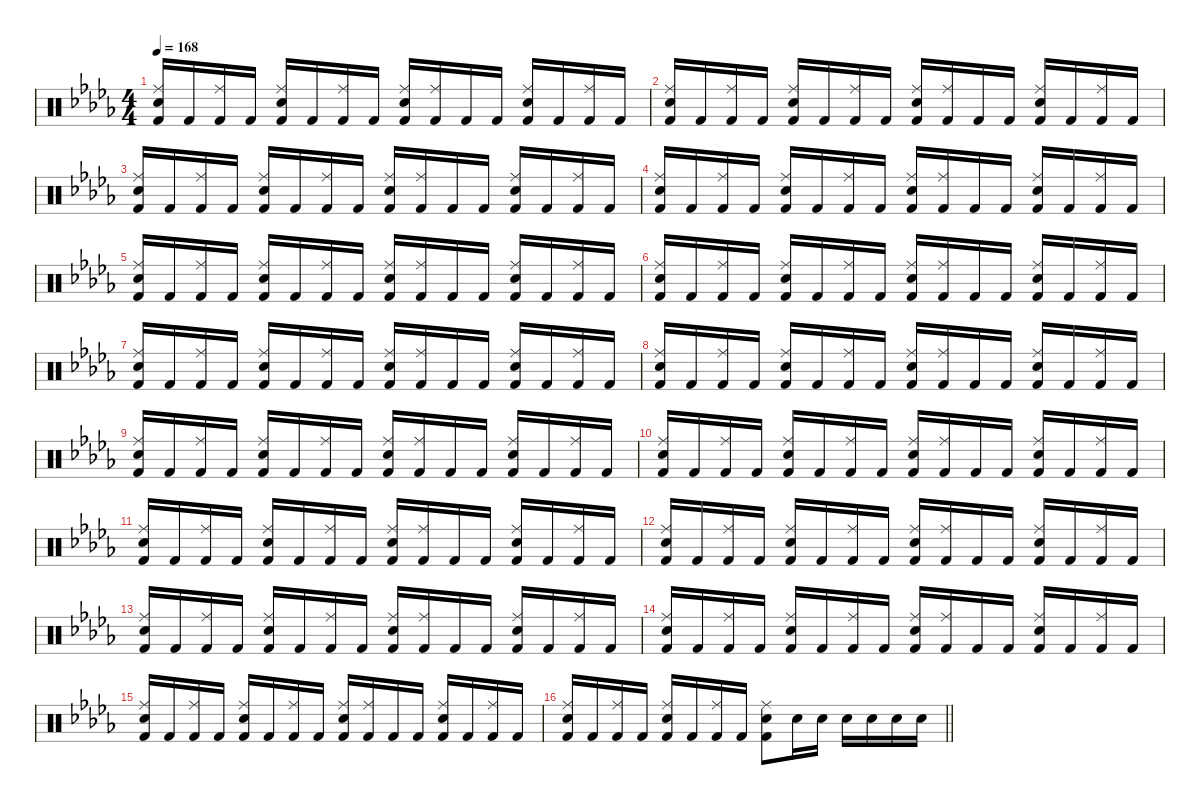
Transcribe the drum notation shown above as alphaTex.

\defaultSystemsLayout 4
\hideDynamics
\bracketExtendMode nobrackets
\singleTrackTrackNamePolicy hidden
\multiTrackTrackNamePolicy hidden
\firstSystemTrackNameMode fullname
\firstSystemTrackNameOrientation horizontal
\otherSystemsTrackNameOrientation horizontal
\track ("Percussion" "drm.") {instrument percussion}
\staff {score}
\articulation defaults
\ts (4 4)
\tempo 168
\clef neutral
\ks db
("Ride (middle)"{acc forcenatural} "Snare (hit) 2"{acc forcenatural} "Kick (hit) 2"{acc forcenatural}).16{dy f beam Up} "Kick (hit) 2"{acc forcenatural}.16{beam Up} ("Ride (middle)"{acc forcenatural} "Kick (hit) 2"{acc forcenatural}).16{beam Up} "Kick (hit) 2"{acc forcenatural}.16{beam Up} ("Ride (middle)"{acc forcenatural} "Snare (hit) 2"{acc forcenatural} "Kick (hit) 2"{acc forcenatural}).16{beam Up} "Kick (hit) 2"{acc forcenatural}.16{beam Up} ("Ride (middle)"{acc forcenatural} "Kick (hit) 2"{acc forcenatural}).16{beam Up} "Kick (hit) 2"{acc forcenatural}.16{beam Up} ("Ride (middle)"{acc forcenatural} "Snare (hit) 2"{acc forcenatural} "Kick (hit) 2"{acc forcenatural}).16{beam Up} ("Ride (middle)"{acc forcenatural} "Kick (hit) 2"{acc forcenatural}).16{beam Up} "Kick (hit) 2"{acc forcenatural}.16{beam Up} "Kick (hit) 2"{acc forcenatural}.16{beam Up} ("Ride (middle)"{acc forcenatural} "Snare (hit) 2"{acc forcenatural} "Kick (hit) 2"{acc forcenatural}).16{beam Up} "Kick (hit) 2"{acc forcenatural}.16{beam Up} ("Ride (middle)"{acc forcenatural} "Kick (hit) 2"{acc forcenatural}).16{beam Up} "Kick (hit) 2"{acc forcenatural}.16{beam Up} |
("Ride (middle)"{acc forcenatural} "Snare (hit) 2"{acc forcenatural} "Kick (hit) 2"{acc forcenatural}).16{beam Up} "Kick (hit) 2"{acc forcenatural}.16{beam Up} ("Ride (middle)"{acc forcenatural} "Kick (hit) 2"{acc forcenatural}).16{beam Up} "Kick (hit) 2"{acc forcenatural}.16{beam Up} ("Ride (middle)"{acc forcenatural} "Snare (hit) 2"{acc forcenatural} "Kick (hit) 2"{acc forcenatural}).16{beam Up} "Kick (hit) 2"{acc forcenatural}.16{beam Up} ("Ride (middle)"{acc forcenatural} "Kick (hit) 2"{acc forcenatural}).16{beam Up} "Kick (hit) 2"{acc forcenatural}.16{beam Up} ("Ride (middle)"{acc forcenatural} "Snare (hit) 2"{acc forcenatural} "Kick (hit) 2"{acc forcenatural}).16{beam Up} ("Ride (middle)"{acc forcenatural} "Kick (hit) 2"{acc forcenatural}).16{beam Up} "Kick (hit) 2"{acc forcenatural}.16{beam Up} "Kick (hit) 2"{acc forcenatural}.16{beam Up} ("Ride (middle)"{acc forcenatural} "Snare (hit) 2"{acc forcenatural} "Kick (hit) 2"{acc forcenatural}).16{beam Up} "Kick (hit) 2"{acc forcenatural}.16{beam Up} ("Ride (middle)"{acc forcenatural} "Kick (hit) 2"{acc forcenatural}).16{beam Up} "Kick (hit) 2"{acc forcenatural}.16{beam Up} |
("Ride (middle)"{acc forcenatural} "Snare (hit) 2"{acc forcenatural} "Kick (hit) 2"{acc forcenatural}).16{beam Up} "Kick (hit) 2"{acc forcenatural}.16{beam Up} ("Ride (middle)"{acc forcenatural} "Kick (hit) 2"{acc forcenatural}).16{beam Up} "Kick (hit) 2"{acc forcenatural}.16{beam Up} ("Ride (middle)"{acc forcenatural} "Snare (hit) 2"{acc forcenatural} "Kick (hit) 2"{acc forcenatural}).16{beam Up} "Kick (hit) 2"{acc forcenatural}.16{beam Up} ("Ride (middle)"{acc forcenatural} "Kick (hit) 2"{acc forcenatural}).16{beam Up} "Kick (hit) 2"{acc forcenatural}.16{beam Up} ("Ride (middle)"{acc forcenatural} "Snare (hit) 2"{acc forcenatural} "Kick (hit) 2"{acc forcenatural}).16{beam Up} ("Ride (middle)"{acc forcenatural} "Kick (hit) 2"{acc forcenatural}).16{beam Up} "Kick (hit) 2"{acc forcenatural}.16{beam Up} "Kick (hit) 2"{acc forcenatural}.16{beam Up} ("Ride (middle)"{acc forcenatural} "Snare (hit) 2"{acc forcenatural} "Kick (hit) 2"{acc forcenatural}).16{beam Up} "Kick (hit) 2"{acc forcenatural}.16{beam Up} ("Ride (middle)"{acc forcenatural} "Kick (hit) 2"{acc forcenatural}).16{beam Up} "Kick (hit) 2"{acc forcenatural}.16{beam Up} |
("Ride (middle)"{acc forcenatural} "Snare (hit) 2"{acc forcenatural} "Kick (hit) 2"{acc forcenatural}).16{beam Up} "Kick (hit) 2"{acc forcenatural}.16{beam Up} ("Ride (middle)"{acc forcenatural} "Kick (hit) 2"{acc forcenatural}).16{beam Up} "Kick (hit) 2"{acc forcenatural}.16{beam Up} ("Ride (middle)"{acc forcenatural} "Snare (hit) 2"{acc forcenatural} "Kick (hit) 2"{acc forcenatural}).16{beam Up} "Kick (hit) 2"{acc forcenatural}.16{beam Up} ("Ride (middle)"{acc forcenatural} "Kick (hit) 2"{acc forcenatural}).16{beam Up} "Kick (hit) 2"{acc forcenatural}.16{beam Up} ("Ride (middle)"{acc forcenatural} "Snare (hit) 2"{acc forcenatural} "Kick (hit) 2"{acc forcenatural}).16{beam Up} ("Ride (middle)"{acc forcenatural} "Kick (hit) 2"{acc forcenatural}).16{beam Up} "Kick (hit) 2"{acc forcenatural}.16{beam Up} "Kick (hit) 2"{acc forcenatural}.16{beam Up} ("Ride (middle)"{acc forcenatural} "Snare (hit) 2"{acc forcenatural} "Kick (hit) 2"{acc forcenatural}).16{beam Up} "Kick (hit) 2"{acc forcenatural}.16{beam Up} ("Ride (middle)"{acc forcenatural} "Kick (hit) 2"{acc forcenatural}).16{beam Up} "Kick (hit) 2"{acc forcenatural}.16{beam Up} |
("Ride (middle)"{acc forcenatural} "Snare (hit) 2"{acc forcenatural} "Kick (hit) 2"{acc forcenatural}).16{beam Up} "Kick (hit) 2"{acc forcenatural}.16{beam Up} ("Ride (middle)"{acc forcenatural} "Kick (hit) 2"{acc forcenatural}).16{beam Up} "Kick (hit) 2"{acc forcenatural}.16{beam Up} ("Ride (middle)"{acc forcenatural} "Snare (hit) 2"{acc forcenatural} "Kick (hit) 2"{acc forcenatural}).16{beam Up} "Kick (hit) 2"{acc forcenatural}.16{beam Up} ("Ride (middle)"{acc forcenatural} "Kick (hit) 2"{acc forcenatural}).16{beam Up} "Kick (hit) 2"{acc forcenatural}.16{beam Up} ("Ride (middle)"{acc forcenatural} "Snare (hit) 2"{acc forcenatural} "Kick (hit) 2"{acc forcenatural}).16{beam Up} ("Ride (middle)"{acc forcenatural} "Kick (hit) 2"{acc forcenatural}).16{beam Up} "Kick (hit) 2"{acc forcenatural}.16{beam Up} "Kick (hit) 2"{acc forcenatural}.16{beam Up} ("Ride (middle)"{acc forcenatural} "Snare (hit) 2"{acc forcenatural} "Kick (hit) 2"{acc forcenatural}).16{beam Up} "Kick (hit) 2"{acc forcenatural}.16{beam Up} ("Ride (middle)"{acc forcenatural} "Kick (hit) 2"{acc forcenatural}).16{beam Up} "Kick (hit) 2"{acc forcenatural}.16{beam Up} |
("Ride (middle)"{acc forcenatural} "Snare (hit) 2"{acc forcenatural} "Kick (hit) 2"{acc forcenatural}).16{beam Up} "Kick (hit) 2"{acc forcenatural}.16{beam Up} ("Ride (middle)"{acc forcenatural} "Kick (hit) 2"{acc forcenatural}).16{beam Up} "Kick (hit) 2"{acc forcenatural}.16{beam Up} ("Ride (middle)"{acc forcenatural} "Snare (hit) 2"{acc forcenatural} "Kick (hit) 2"{acc forcenatural}).16{beam Up} "Kick (hit) 2"{acc forcenatural}.16{beam Up} ("Ride (middle)"{acc forcenatural} "Kick (hit) 2"{acc forcenatural}).16{beam Up} "Kick (hit) 2"{acc forcenatural}.16{beam Up} ("Ride (middle)"{acc forcenatural} "Snare (hit) 2"{acc forcenatural} "Kick (hit) 2"{acc forcenatural}).16{beam Up} ("Ride (middle)"{acc forcenatural} "Kick (hit) 2"{acc forcenatural}).16{beam Up} "Kick (hit) 2"{acc forcenatural}.16{beam Up} "Kick (hit) 2"{acc forcenatural}.16{beam Up} ("Ride (middle)"{acc forcenatural} "Snare (hit) 2"{acc forcenatural} "Kick (hit) 2"{acc forcenatural}).16{beam Up} "Kick (hit) 2"{acc forcenatural}.16{beam Up} ("Ride (middle)"{acc forcenatural} "Kick (hit) 2"{acc forcenatural}).16{beam Up} "Kick (hit) 2"{acc forcenatural}.16{beam Up} |
("Ride (middle)"{acc forcenatural} "Snare (hit) 2"{acc forcenatural} "Kick (hit) 2"{acc forcenatural}).16{beam Up} "Kick (hit) 2"{acc forcenatural}.16{beam Up} ("Ride (middle)"{acc forcenatural} "Kick (hit) 2"{acc forcenatural}).16{beam Up} "Kick (hit) 2"{acc forcenatural}.16{beam Up} ("Ride (middle)"{acc forcenatural} "Snare (hit) 2"{acc forcenatural} "Kick (hit) 2"{acc forcenatural}).16{beam Up} "Kick (hit) 2"{acc forcenatural}.16{beam Up} ("Ride (middle)"{acc forcenatural} "Kick (hit) 2"{acc forcenatural}).16{beam Up} "Kick (hit) 2"{acc forcenatural}.16{beam Up} ("Ride (middle)"{acc forcenatural} "Snare (hit) 2"{acc forcenatural} "Kick (hit) 2"{acc forcenatural}).16{beam Up} ("Ride (middle)"{acc forcenatural} "Kick (hit) 2"{acc forcenatural}).16{beam Up} "Kick (hit) 2"{acc forcenatural}.16{beam Up} "Kick (hit) 2"{acc forcenatural}.16{beam Up} ("Ride (middle)"{acc forcenatural} "Snare (hit) 2"{acc forcenatural} "Kick (hit) 2"{acc forcenatural}).16{beam Up} "Kick (hit) 2"{acc forcenatural}.16{beam Up} ("Ride (middle)"{acc forcenatural} "Kick (hit) 2"{acc forcenatural}).16{beam Up} "Kick (hit) 2"{acc forcenatural}.16{beam Up} |
("Ride (middle)"{acc forcenatural} "Snare (hit) 2"{acc forcenatural} "Kick (hit) 2"{acc forcenatural}).16{beam Up} "Kick (hit) 2"{acc forcenatural}.16{beam Up} ("Ride (middle)"{acc forcenatural} "Kick (hit) 2"{acc forcenatural}).16{beam Up} "Kick (hit) 2"{acc forcenatural}.16{beam Up} ("Ride (middle)"{acc forcenatural} "Snare (hit) 2"{acc forcenatural} "Kick (hit) 2"{acc forcenatural}).16{beam Up} "Kick (hit) 2"{acc forcenatural}.16{beam Up} ("Ride (middle)"{acc forcenatural} "Kick (hit) 2"{acc forcenatural}).16{beam Up} "Kick (hit) 2"{acc forcenatural}.16{beam Up} ("Ride (middle)"{acc forcenatural} "Snare (hit) 2"{acc forcenatural} "Kick (hit) 2"{acc forcenatural}).16{beam Up} ("Ride (middle)"{acc forcenatural} "Kick (hit) 2"{acc forcenatural}).16{beam Up} "Kick (hit) 2"{acc forcenatural}.16{beam Up} "Kick (hit) 2"{acc forcenatural}.16{beam Up} ("Ride (middle)"{acc forcenatural} "Snare (hit) 2"{acc forcenatural} "Kick (hit) 2"{acc forcenatural}).16{beam Up} "Kick (hit) 2"{acc forcenatural}.16{beam Up} ("Ride (middle)"{acc forcenatural} "Kick (hit) 2"{acc forcenatural}).16{beam Up} "Kick (hit) 2"{acc forcenatural}.16{beam Up} |
("Ride (middle)"{acc forcenatural} "Snare (hit) 2"{acc forcenatural} "Kick (hit) 2"{acc forcenatural}).16{beam Up} "Kick (hit) 2"{acc forcenatural}.16{beam Up} ("Ride (middle)"{acc forcenatural} "Kick (hit) 2"{acc forcenatural}).16{beam Up} "Kick (hit) 2"{acc forcenatural}.16{beam Up} ("Ride (middle)"{acc forcenatural} "Snare (hit) 2"{acc forcenatural} "Kick (hit) 2"{acc forcenatural}).16{beam Up} "Kick (hit) 2"{acc forcenatural}.16{beam Up} ("Ride (middle)"{acc forcenatural} "Kick (hit) 2"{acc forcenatural}).16{beam Up} "Kick (hit) 2"{acc forcenatural}.16{beam Up} ("Ride (middle)"{acc forcenatural} "Snare (hit) 2"{acc forcenatural} "Kick (hit) 2"{acc forcenatural}).16{beam Up} ("Ride (middle)"{acc forcenatural} "Kick (hit) 2"{acc forcenatural}).16{beam Up} "Kick (hit) 2"{acc forcenatural}.16{beam Up} "Kick (hit) 2"{acc forcenatural}.16{beam Up} ("Ride (middle)"{acc forcenatural} "Snare (hit) 2"{acc forcenatural} "Kick (hit) 2"{acc forcenatural}).16{beam Up} "Kick (hit) 2"{acc forcenatural}.16{beam Up} ("Ride (middle)"{acc forcenatural} "Kick (hit) 2"{acc forcenatural}).16{beam Up} "Kick (hit) 2"{acc forcenatural}.16{beam Up} |
("Ride (middle)"{acc forcenatural} "Snare (hit) 2"{acc forcenatural} "Kick (hit) 2"{acc forcenatural}).16{beam Up} "Kick (hit) 2"{acc forcenatural}.16{beam Up} ("Ride (middle)"{acc forcenatural} "Kick (hit) 2"{acc forcenatural}).16{beam Up} "Kick (hit) 2"{acc forcenatural}.16{beam Up} ("Ride (middle)"{acc forcenatural} "Snare (hit) 2"{acc forcenatural} "Kick (hit) 2"{acc forcenatural}).16{beam Up} "Kick (hit) 2"{acc forcenatural}.16{beam Up} ("Ride (middle)"{acc forcenatural} "Kick (hit) 2"{acc forcenatural}).16{beam Up} "Kick (hit) 2"{acc forcenatural}.16{beam Up} ("Ride (middle)"{acc forcenatural} "Snare (hit) 2"{acc forcenatural} "Kick (hit) 2"{acc forcenatural}).16{beam Up} ("Ride (middle)"{acc forcenatural} "Kick (hit) 2"{acc forcenatural}).16{beam Up} "Kick (hit) 2"{acc forcenatural}.16{beam Up} "Kick (hit) 2"{acc forcenatural}.16{beam Up} ("Ride (middle)"{acc forcenatural} "Snare (hit) 2"{acc forcenatural} "Kick (hit) 2"{acc forcenatural}).16{beam Up} "Kick (hit) 2"{acc forcenatural}.16{beam Up} ("Ride (middle)"{acc forcenatural} "Kick (hit) 2"{acc forcenatural}).16{beam Up} "Kick (hit) 2"{acc forcenatural}.16{beam Up} |
("Ride (middle)"{acc forcenatural} "Snare (hit) 2"{acc forcenatural} "Kick (hit) 2"{acc forcenatural}).16{beam Up} "Kick (hit) 2"{acc forcenatural}.16{beam Up} ("Ride (middle)"{acc forcenatural} "Kick (hit) 2"{acc forcenatural}).16{beam Up} "Kick (hit) 2"{acc forcenatural}.16{beam Up} ("Ride (middle)"{acc forcenatural} "Snare (hit) 2"{acc forcenatural} "Kick (hit) 2"{acc forcenatural}).16{beam Up} "Kick (hit) 2"{acc forcenatural}.16{beam Up} ("Ride (middle)"{acc forcenatural} "Kick (hit) 2"{acc forcenatural}).16{beam Up} "Kick (hit) 2"{acc forcenatural}.16{beam Up} ("Ride (middle)"{acc forcenatural} "Snare (hit) 2"{acc forcenatural} "Kick (hit) 2"{acc forcenatural}).16{beam Up} ("Ride (middle)"{acc forcenatural} "Kick (hit) 2"{acc forcenatural}).16{beam Up} "Kick (hit) 2"{acc forcenatural}.16{beam Up} "Kick (hit) 2"{acc forcenatural}.16{beam Up} ("Ride (middle)"{acc forcenatural} "Snare (hit) 2"{acc forcenatural} "Kick (hit) 2"{acc forcenatural}).16{beam Up} "Kick (hit) 2"{acc forcenatural}.16{beam Up} ("Ride (middle)"{acc forcenatural} "Kick (hit) 2"{acc forcenatural}).16{beam Up} "Kick (hit) 2"{acc forcenatural}.16{beam Up} |
("Ride (middle)"{acc forcenatural} "Snare (hit) 2"{acc forcenatural} "Kick (hit) 2"{acc forcenatural}).16{beam Up} "Kick (hit) 2"{acc forcenatural}.16{beam Up} ("Ride (middle)"{acc forcenatural} "Kick (hit) 2"{acc forcenatural}).16{beam Up} "Kick (hit) 2"{acc forcenatural}.16{beam Up} ("Ride (middle)"{acc forcenatural} "Snare (hit) 2"{acc forcenatural} "Kick (hit) 2"{acc forcenatural}).16{beam Up} "Kick (hit) 2"{acc forcenatural}.16{beam Up} ("Ride (middle)"{acc forcenatural} "Kick (hit) 2"{acc forcenatural}).16{beam Up} "Kick (hit) 2"{acc forcenatural}.16{beam Up} ("Ride (middle)"{acc forcenatural} "Snare (hit) 2"{acc forcenatural} "Kick (hit) 2"{acc forcenatural}).16{beam Up} ("Ride (middle)"{acc forcenatural} "Kick (hit) 2"{acc forcenatural}).16{beam Up} "Kick (hit) 2"{acc forcenatural}.16{beam Up} "Kick (hit) 2"{acc forcenatural}.16{beam Up} ("Ride (middle)"{acc forcenatural} "Snare (hit) 2"{acc forcenatural} "Kick (hit) 2"{acc forcenatural}).16{beam Up} "Kick (hit) 2"{acc forcenatural}.16{beam Up} ("Ride (middle)"{acc forcenatural} "Kick (hit) 2"{acc forcenatural}).16{beam Up} "Kick (hit) 2"{acc forcenatural}.16{beam Up} |
("Ride (middle)"{acc forcenatural} "Snare (hit) 2"{acc forcenatural} "Kick (hit) 2"{acc forcenatural}).16{beam Up} "Kick (hit) 2"{acc forcenatural}.16{beam Up} ("Ride (middle)"{acc forcenatural} "Kick (hit) 2"{acc forcenatural}).16{beam Up} "Kick (hit) 2"{acc forcenatural}.16{beam Up} ("Ride (middle)"{acc forcenatural} "Snare (hit) 2"{acc forcenatural} "Kick (hit) 2"{acc forcenatural}).16{beam Up} "Kick (hit) 2"{acc forcenatural}.16{beam Up} ("Ride (middle)"{acc forcenatural} "Kick (hit) 2"{acc forcenatural}).16{beam Up} "Kick (hit) 2"{acc forcenatural}.16{beam Up} ("Ride (middle)"{acc forcenatural} "Snare (hit) 2"{acc forcenatural} "Kick (hit) 2"{acc forcenatural}).16{beam Up} ("Ride (middle)"{acc forcenatural} "Kick (hit) 2"{acc forcenatural}).16{beam Up} "Kick (hit) 2"{acc forcenatural}.16{beam Up} "Kick (hit) 2"{acc forcenatural}.16{beam Up} ("Ride (middle)"{acc forcenatural} "Snare (hit) 2"{acc forcenatural} "Kick (hit) 2"{acc forcenatural}).16{beam Up} "Kick (hit) 2"{acc forcenatural}.16{beam Up} ("Ride (middle)"{acc forcenatural} "Kick (hit) 2"{acc forcenatural}).16{beam Up} "Kick (hit) 2"{acc forcenatural}.16{beam Up} |
("Ride (middle)"{acc forcenatural} "Snare (hit) 2"{acc forcenatural} "Kick (hit) 2"{acc forcenatural}).16{beam Up} "Kick (hit) 2"{acc forcenatural}.16{beam Up} ("Ride (middle)"{acc forcenatural} "Kick (hit) 2"{acc forcenatural}).16{beam Up} "Kick (hit) 2"{acc forcenatural}.16{beam Up} ("Ride (middle)"{acc forcenatural} "Snare (hit) 2"{acc forcenatural} "Kick (hit) 2"{acc forcenatural}).16{beam Up} "Kick (hit) 2"{acc forcenatural}.16{beam Up} ("Ride (middle)"{acc forcenatural} "Kick (hit) 2"{acc forcenatural}).16{beam Up} "Kick (hit) 2"{acc forcenatural}.16{beam Up} ("Ride (middle)"{acc forcenatural} "Snare (hit) 2"{acc forcenatural} "Kick (hit) 2"{acc forcenatural}).16{beam Up} ("Ride (middle)"{acc forcenatural} "Kick (hit) 2"{acc forcenatural}).16{beam Up} "Kick (hit) 2"{acc forcenatural}.16{beam Up} "Kick (hit) 2"{acc forcenatural}.16{beam Up} ("Ride (middle)"{acc forcenatural} "Snare (hit) 2"{acc forcenatural} "Kick (hit) 2"{acc forcenatural}).16{beam Up} "Kick (hit) 2"{acc forcenatural}.16{beam Up} ("Ride (middle)"{acc forcenatural} "Kick (hit) 2"{acc forcenatural}).16{beam Up} "Kick (hit) 2"{acc forcenatural}.16{beam Up} |
("Ride (middle)"{acc forcenatural} "Snare (hit) 2"{acc forcenatural} "Kick (hit) 2"{acc forcenatural}).16{beam Up} "Kick (hit) 2"{acc forcenatural}.16{beam Up} ("Ride (middle)"{acc forcenatural} "Kick (hit) 2"{acc forcenatural}).16{beam Up} "Kick (hit) 2"{acc forcenatural}.16{beam Up} ("Ride (middle)"{acc forcenatural} "Snare (hit) 2"{acc forcenatural} "Kick (hit) 2"{acc forcenatural}).16{beam Up} "Kick (hit) 2"{acc forcenatural}.16{beam Up} ("Ride (middle)"{acc forcenatural} "Kick (hit) 2"{acc forcenatural}).16{beam Up} "Kick (hit) 2"{acc forcenatural}.16{beam Up} ("Ride (middle)"{acc forcenatural} "Snare (hit) 2"{acc forcenatural} "Kick (hit) 2"{acc forcenatural}).16{beam Up} ("Ride (middle)"{acc forcenatural} "Kick (hit) 2"{acc forcenatural}).16{beam Up} "Kick (hit) 2"{acc forcenatural}.16{beam Up} "Kick (hit) 2"{acc forcenatural}.16{beam Up} ("Ride (middle)"{acc forcenatural} "Snare (hit) 2"{acc forcenatural} "Kick (hit) 2"{acc forcenatural}).16{beam Up} "Kick (hit) 2"{acc forcenatural}.16{beam Up} ("Ride (middle)"{acc forcenatural} "Kick (hit) 2"{acc forcenatural}).16{beam Up} "Kick (hit) 2"{acc forcenatural}.16{beam Up} |
\barLineRight lightlight
("Ride (middle)"{acc forcenatural} "Snare (hit) 2"{acc forcenatural} "Kick (hit) 2"{acc forcenatural}).16{beam Up} "Kick (hit) 2"{acc forcenatural}.16{beam Up} ("Ride (middle)"{acc forcenatural} "Kick (hit) 2"{acc forcenatural}).16{beam Up} "Kick (hit) 2"{acc forcenatural}.16{beam Up} ("Ride (middle)"{acc forcenatural} "Snare (hit) 2"{acc forcenatural} "Kick (hit) 2"{acc forcenatural}).16{beam Up} "Kick (hit) 2"{acc forcenatural}.16{beam Up} ("Ride (middle)"{acc forcenatural} "Kick (hit) 2"{acc forcenatural}).16{beam Up} "Kick (hit) 2"{acc forcenatural}.16{beam Up} ("Ride (middle)"{acc forcenatural} "Snare (hit) 2"{acc forcenatural} "Kick (hit) 2"{acc forcenatural}).8{beam Down} "Snare (hit) 2"{acc forcenatural}.16{beam Down} "Snare (hit) 2"{acc forcenatural}.16{beam Down} "Snare (hit) 2"{acc forcenatural}.16{beam Down} "Snare (hit) 2"{acc forcenatural}.16{beam Down} "Snare (hit) 2"{acc forcenatural}.16{beam Down} "Snare (hit) 2"{acc forcenatural}.16{beam Down}
